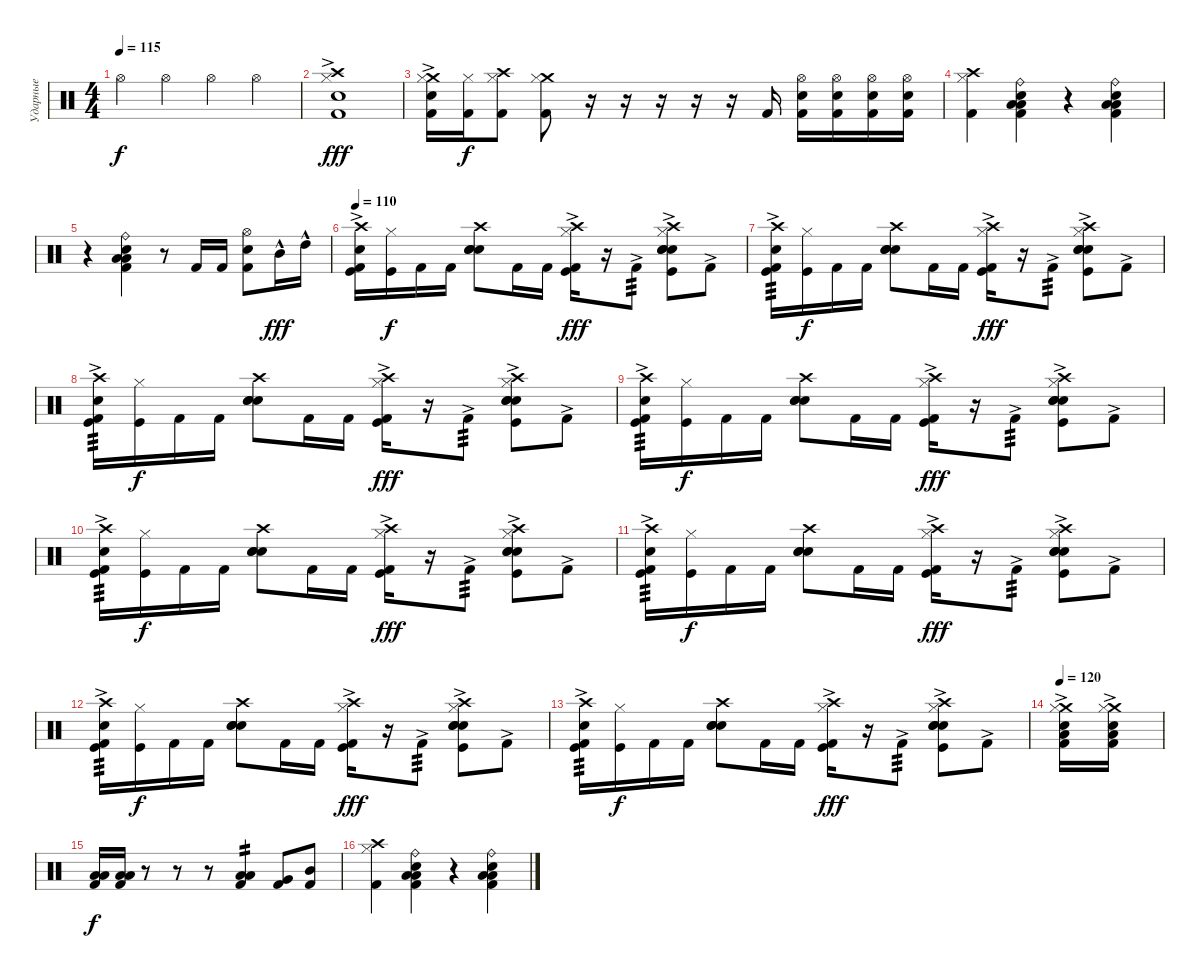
\track ("Ударные" "Ударные") {instrument percussion}
\staff {score}
\articulation defaults
\ts (4 4)
\tempo 115
\clef neutral
\ks c "Hi-Hat (open)".4{dy f} "Hi-Hat (open)".4 "Hi-Hat (open)".4 "Hi-Hat (open)".4
|
("Crash high (hit)" "Snare (hit) 2" "Hi-Hat (closed)"{ac} "Kick (hit) 2"{ac}).1{dy fff} |
("Crash medium (hit)" "Snare (hit) 2" "Hi-Hat (closed)"{ac} "Kick (hit) 2"{ac}).16 ("Hi-Hat (closed)" "Kick (hit) 2").16{dy f} ("Crash high (hit)" "Hi-Hat (closed)" "Kick (hit) 2").8 ("Crash medium (hit)" "Hi-Hat (closed)" "Kick (hit) 2").8 r.16 r.16{volume 0} r.16 r.16 r.16 "Kick (hit) 2".16{volume 13} ("Hi-Hat (open)" "Electric Snare (hit)" "Kick (hit) 2").16 ("Hi-Hat (open)" "Electric Snare (hit)" "Kick (hit) 2").16 ("Hi-Hat (open)" "Electric Snare (hit)" "Kick (hit) 2").16 ("Hi-Hat (open)" "Electric Snare (hit)" "Kick (hit) 2").16 |
("Crash high (hit)" "Hi-Hat (closed)" "Kick (hit) 2").4 ("Ride (bell)" "Low Floor Tom (hit)" "Low Tom (hit)" "Snare (hit) 2" "Kick (hit) 2").4 r.4 ("Ride (bell)" "Low Floor Tom (hit)" "Low Tom (hit)" "Snare (hit) 2" "Kick (hit) 2").4 |
r.4 ("Ride (bell)" "Low Floor Tom (hit)" "Low Tom (hit)" "Snare (hit) 2" "Kick (hit) 2").4 r.8 "Kick (hit) 2".16 "Kick (hit) 2".16 ("Hi-Hat (open)" "Electric Snare (hit)" "Kick (hit) 2").8 "Mid Tom (hit)"{hac}.16{dy fff} "High Tom (hit)"{hac}.16 |
\tempo 110
("Crash high (hit)" "Kick (hit)" "Snare (hit)" "Kick (hit) 2"{ac}).16 ("Kick (hit)" "Hi-Hat (closed)").16{dy f} "Kick (hit) 2".16 "Kick (hit) 2".16 ("Crash high (hit)" "Electric Snare (hit)" "Electric Snare (hit)" "Snare (hit) 2").8 "Kick (hit) 2".16 "Kick (hit) 2".16 ("Crash high (hit)" "Hi-Hat (closed)" "Kick (hit)" "Kick (hit) 2"{ac}).16{dy fff} r.16 "Kick (hit) 2"{ac}.8{tp 3} ("Crash high (hit)" "Electric Snare (hit)" "Hi-Hat (closed)" "Electric Snare (hit)" "Snare (hit) 2" "Kick (hit)"{ac}).8 "Kick (hit) 2"{ac}.8 |
("Crash high (hit)" "Kick (hit)" "Snare (hit)" "Kick (hit) 2"{ac}).16{tp 3} ("Kick (hit)" "Hi-Hat (closed)").16{dy f} "Kick (hit) 2".16 "Kick (hit) 2".16 ("Crash high (hit)" "Electric Snare (hit)" "Electric Snare (hit)" "Snare (hit) 2").8 "Kick (hit) 2".16 "Kick (hit) 2".16 ("Crash high (hit)" "Hi-Hat (closed)" "Kick (hit)" "Kick (hit) 2"{ac}).16{dy fff} r.16 "Kick (hit) 2"{ac}.8{tp 3} ("Crash high (hit)" "Electric Snare (hit)" "Hi-Hat (closed)" "Electric Snare (hit)" "Snare (hit) 2" "Kick (hit)"{ac}).8 "Kick (hit) 2"{ac}.8 |
("Crash high (hit)" "Kick (hit)" "Snare (hit)" "Kick (hit) 2"{ac}).16{tp 3} ("Kick (hit)" "Hi-Hat (closed)").16{dy f} "Kick (hit) 2".16 "Kick (hit) 2".16 ("Crash high (hit)" "Electric Snare (hit)" "Electric Snare (hit)" "Snare (hit) 2").8 "Kick (hit) 2".16 "Kick (hit) 2".16 ("Crash high (hit)" "Hi-Hat (closed)" "Kick (hit)" "Kick (hit) 2"{ac}).16{dy fff} r.16 "Kick (hit) 2"{ac}.8{tp 3} ("Crash high (hit)" "Electric Snare (hit)" "Hi-Hat (closed)" "Electric Snare (hit)" "Snare (hit) 2" "Kick (hit)"{ac}).8 "Kick (hit) 2"{ac}.8 |
("Crash high (hit)" "Kick (hit)" "Snare (hit)" "Kick (hit) 2"{ac}).16{tp 3} ("Kick (hit)" "Hi-Hat (closed)").16{dy f} "Kick (hit) 2".16 "Kick (hit) 2".16 ("Crash high (hit)" "Electric Snare (hit)" "Electric Snare (hit)" "Snare (hit) 2").8 "Kick (hit) 2".16 "Kick (hit) 2".16 ("Crash high (hit)" "Hi-Hat (closed)" "Kick (hit)" "Kick (hit) 2"{ac}).16{dy fff} r.16 "Kick (hit) 2"{ac}.8{tp 3} ("Crash high (hit)" "Electric Snare (hit)" "Hi-Hat (closed)" "Electric Snare (hit)" "Snare (hit) 2" "Kick (hit)"{ac}).8 "Kick (hit) 2"{ac}.8 |
("Crash high (hit)" "Kick (hit)" "Snare (hit)" "Kick (hit) 2"{ac}).16{tp 3} ("Kick (hit)" "Hi-Hat (closed)").16{dy f} "Kick (hit) 2".16 "Kick (hit) 2".16 ("Crash high (hit)" "Electric Snare (hit)" "Electric Snare (hit)" "Snare (hit) 2").8 "Kick (hit) 2".16 "Kick (hit) 2".16 ("Crash high (hit)" "Hi-Hat (closed)" "Kick (hit)" "Kick (hit) 2"{ac}).16{dy fff} r.16 "Kick (hit) 2"{ac}.8{tp 3} ("Crash high (hit)" "Electric Snare (hit)" "Hi-Hat (closed)" "Electric Snare (hit)" "Snare (hit) 2" "Kick (hit)"{ac}).8 "Kick (hit) 2"{ac}.8 |
("Crash high (hit)" "Kick (hit)" "Snare (hit)" "Kick (hit) 2"{ac}).16{tp 3} ("Kick (hit)" "Hi-Hat (closed)").16{dy f} "Kick (hit) 2".16 "Kick (hit) 2".16 ("Crash high (hit)" "Electric Snare (hit)" "Electric Snare (hit)" "Snare (hit) 2").8 "Kick (hit) 2".16 "Kick (hit) 2".16 ("Crash high (hit)" "Hi-Hat (closed)" "Kick (hit)" "Kick (hit) 2"{ac}).16{dy fff} r.16 "Kick (hit) 2"{ac}.8{tp 3} ("Crash high (hit)" "Electric Snare (hit)" "Hi-Hat (closed)" "Electric Snare (hit)" "Snare (hit) 2" "Kick (hit)"{ac}).8 "Kick (hit) 2"{ac}.8 |
("Crash high (hit)" "Kick (hit)" "Snare (hit)" "Kick (hit) 2"{ac}).16{tp 3} ("Kick (hit)" "Hi-Hat (closed)").16{dy f} "Kick (hit) 2".16 "Kick (hit) 2".16 ("Crash high (hit)" "Electric Snare (hit)" "Electric Snare (hit)" "Snare (hit) 2").8 "Kick (hit) 2".16 "Kick (hit) 2".16 ("Crash high (hit)" "Hi-Hat (closed)" "Kick (hit)" "Kick (hit) 2"{ac}).16{dy fff} r.16 "Kick (hit) 2"{ac}.8{tp 3} ("Crash high (hit)" "Electric Snare (hit)" "Hi-Hat (closed)" "Electric Snare (hit)" "Snare (hit) 2" "Kick (hit)"{ac}).8 "Kick (hit) 2"{ac}.8 |
("Crash high (hit)" "Kick (hit)" "Snare (hit)" "Kick (hit) 2"{ac}).16{tp 3} ("Kick (hit)" "Hi-Hat (closed)").16{dy f} "Kick (hit) 2".16 "Kick (hit) 2".16 ("Crash high (hit)" "Electric Snare (hit)" "Electric Snare (hit)" "Snare (hit) 2").8 "Kick (hit) 2".16 "Kick (hit) 2".16 ("Crash high (hit)" "Hi-Hat (closed)" "Kick (hit)" "Kick (hit) 2"{ac}).16{dy fff} r.16 "Kick (hit) 2"{ac}.8{tp 3} ("Crash high (hit)" "Electric Snare (hit)" "Hi-Hat (closed)" "Electric Snare (hit)" "Snare (hit) 2" "Kick (hit)"{ac}).8 "Kick (hit) 2"{ac}.8 |
\tempo 120
("Crash medium (hit)" "Low Tom (hit)" "Snare (hit) 2" "Hi-Hat (closed)" "Kick (hit) 2"{ac}).16 ("Crash medium (hit)" "Low Tom (hit)" "Snare (hit) 2" "Hi-Hat (closed)" "Kick (hit) 2"{ac}).16 |
("Low Floor Tom (hit)" "Low Tom (hit)" "Kick (hit) 2").16{dy f} ("Low Floor Tom (hit)" "Low Tom (hit)" "Kick (hit) 2").16 r.8 r.8 r.8 ("Low Floor Tom (hit)" "Low Tom (hit)" "Kick (hit) 2").4{tp 2} ("Very Low Tom (hit)" "Kick (hit) 2").8 ("Mid Tom (hit)" "Kick (hit) 2").8 |
("Crash high (hit)" "Hi-Hat (closed)" "Kick (hit) 2").4 ("Ride (bell)" "Low Floor Tom (hit)" "Low Tom (hit)" "Snare (hit) 2" "Kick (hit) 2").4 r.4 ("Ride (bell)" "Low Floor Tom (hit)" "Low Tom (hit)" "Snare (hit) 2" "Kick (hit) 2").4
